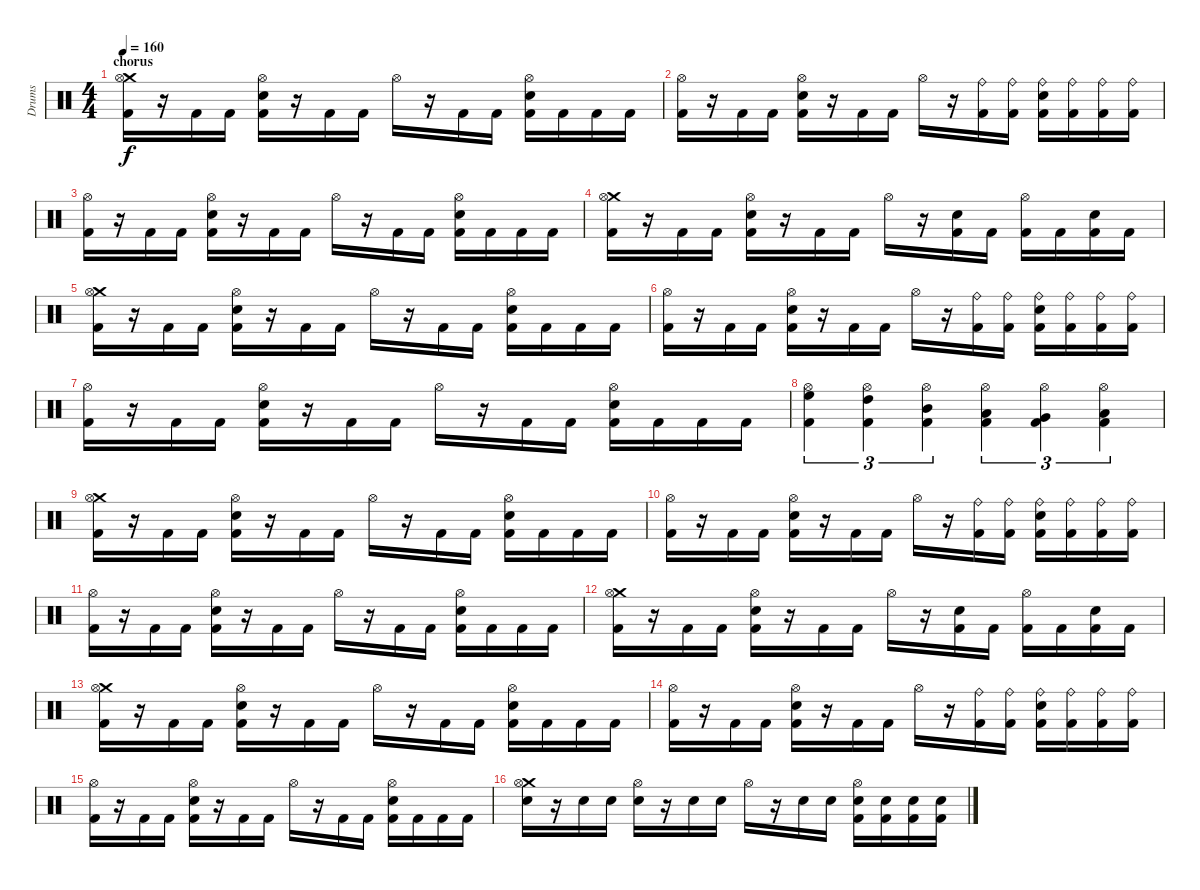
\track ("Drums" "Drums") {instrument percussion}
\staff {score}
\articulation defaults
\ts (4 4)
\section ("" "chorus")
\tempo 160
\clef neutral
\ks c
("Crash medium (hit)" "Hi-Hat (open)" "Kick (hit) 2").16{dy f} r.16 "Kick (hit) 2".16 "Kick (hit) 2".16 ("Hi-Hat (open)" "Electric Snare (hit)" "Kick (hit) 2").16 r.16 "Kick (hit) 2".16 "Kick (hit) 2".16 "Hi-Hat (open)".16 r.16 "Kick (hit) 2".16 "Kick (hit) 2".16 ("Hi-Hat (open)" "Electric Snare (hit)" "Kick (hit) 2").16 "Kick (hit) 2".16 "Kick (hit) 2".16 "Kick (hit) 2".16 |
("Hi-Hat (open)" "Kick (hit) 2").16 r.16 "Kick (hit) 2".16 "Kick (hit) 2".16 ("Hi-Hat (open)" "Electric Snare (hit)" "Kick (hit) 2").16 r.16 "Kick (hit) 2".16 "Kick (hit) 2".16 "Hi-Hat (open)".16 r.16 ("Ride (bell)" "Kick (hit) 2").16 ("Ride (bell)" "Kick (hit) 2").16 ("Ride (bell)" "Electric Snare (hit)" "Kick (hit) 2").16 ("Ride (bell)" "Kick (hit) 2").16 ("Ride (bell)" "Kick (hit) 2").16 ("Ride (bell)" "Kick (hit) 2").16 |
("Hi-Hat (open)" "Kick (hit) 2").16 r.16 "Kick (hit) 2".16 "Kick (hit) 2".16 ("Hi-Hat (open)" "Electric Snare (hit)" "Kick (hit) 2").16 r.16 "Kick (hit) 2".16 "Kick (hit) 2".16 "Hi-Hat (open)".16 r.16 "Kick (hit) 2".16 "Kick (hit) 2".16 ("Hi-Hat (open)" "Electric Snare (hit)" "Kick (hit) 2").16 "Kick (hit) 2".16 "Kick (hit) 2".16 "Kick (hit) 2".16 |
("Crash medium (hit)" "Hi-Hat (open)" "Kick (hit) 2").16 r.16 "Kick (hit) 2".16 "Kick (hit) 2".16 ("Hi-Hat (open)" "Electric Snare (hit)" "Kick (hit) 2").16 r.16 "Kick (hit) 2".16 "Kick (hit) 2".16 "Hi-Hat (open)".16 r.16 ("Electric Snare (hit)" "Kick (hit) 2").16 "Kick (hit) 2".16 ("Hi-Hat (open)" "Kick (hit) 2").16 "Kick (hit) 2".16 ("Electric Snare (hit)" "Kick (hit) 2").16 "Kick (hit) 2".16 |
("Crash medium (hit)" "Hi-Hat (open)" "Kick (hit) 2").16 r.16 "Kick (hit) 2".16 "Kick (hit) 2".16 ("Hi-Hat (open)" "Electric Snare (hit)" "Kick (hit) 2").16 r.16 "Kick (hit) 2".16 "Kick (hit) 2".16 "Hi-Hat (open)".16 r.16 "Kick (hit) 2".16 "Kick (hit) 2".16 ("Hi-Hat (open)" "Electric Snare (hit)" "Kick (hit) 2").16 "Kick (hit) 2".16 "Kick (hit) 2".16 "Kick (hit) 2".16 |
("Hi-Hat (open)" "Kick (hit) 2").16 r.16 "Kick (hit) 2".16 "Kick (hit) 2".16 ("Hi-Hat (open)" "Electric Snare (hit)" "Kick (hit) 2").16 r.16 "Kick (hit) 2".16 "Kick (hit) 2".16 "Hi-Hat (open)".16 r.16 ("Ride (bell)" "Kick (hit) 2").16 ("Ride (bell)" "Kick (hit) 2").16 ("Ride (bell)" "Electric Snare (hit)" "Kick (hit) 2").16 ("Ride (bell)" "Kick (hit) 2").16 ("Ride (bell)" "Kick (hit) 2").16 ("Ride (bell)" "Kick (hit) 2").16 |
("Hi-Hat (open)" "Kick (hit) 2").16 r.16 "Kick (hit) 2".16 "Kick (hit) 2".16 ("Hi-Hat (open)" "Electric Snare (hit)" "Kick (hit) 2").16 r.16 "Kick (hit) 2".16 "Kick (hit) 2".16 "Hi-Hat (open)".16 r.16 "Kick (hit) 2".16 "Kick (hit) 2".16 ("Hi-Hat (open)" "Electric Snare (hit)" "Kick (hit) 2").16 "Kick (hit) 2".16 "Kick (hit) 2".16 "Kick (hit) 2".16 |
("Hi-Hat (open)" "High Floor Tom (hit)" "Kick (hit) 2").4{tu (3 2)} ("Hi-Hat (open)" "High Tom (hit)" "Kick (hit) 2").4{tu (3 2)} ("Hi-Hat (open)" "Mid Tom (hit)" "Kick (hit) 2").4{tu (3 2)} ("Hi-Hat (open)" "Low Tom (hit)" "Kick (hit) 2").4{tu (3 2)} ("Hi-Hat (open)" "Very Low Tom (hit)" "Kick (hit) 2").4{tu (3 2)} ("Hi-Hat (open)" "Low Floor Tom (hit)" "Kick (hit) 2").4{tu (3 2)} |
("Crash medium (hit)" "Hi-Hat (open)" "Kick (hit) 2").16 r.16 "Kick (hit) 2".16 "Kick (hit) 2".16 ("Hi-Hat (open)" "Electric Snare (hit)" "Kick (hit) 2").16 r.16 "Kick (hit) 2".16 "Kick (hit) 2".16 "Hi-Hat (open)".16 r.16 "Kick (hit) 2".16 "Kick (hit) 2".16 ("Hi-Hat (open)" "Electric Snare (hit)" "Kick (hit) 2").16 "Kick (hit) 2".16 "Kick (hit) 2".16 "Kick (hit) 2".16 |
("Hi-Hat (open)" "Kick (hit) 2").16 r.16 "Kick (hit) 2".16 "Kick (hit) 2".16 ("Hi-Hat (open)" "Electric Snare (hit)" "Kick (hit) 2").16 r.16 "Kick (hit) 2".16 "Kick (hit) 2".16 "Hi-Hat (open)".16 r.16 ("Ride (bell)" "Kick (hit) 2").16 ("Ride (bell)" "Kick (hit) 2").16 ("Ride (bell)" "Electric Snare (hit)" "Kick (hit) 2").16 ("Ride (bell)" "Kick (hit) 2").16 ("Ride (bell)" "Kick (hit) 2").16 ("Ride (bell)" "Kick (hit) 2").16 |
("Hi-Hat (open)" "Kick (hit) 2").16 r.16 "Kick (hit) 2".16 "Kick (hit) 2".16 ("Hi-Hat (open)" "Electric Snare (hit)" "Kick (hit) 2").16 r.16 "Kick (hit) 2".16 "Kick (hit) 2".16 "Hi-Hat (open)".16 r.16 "Kick (hit) 2".16 "Kick (hit) 2".16 ("Hi-Hat (open)" "Electric Snare (hit)" "Kick (hit) 2").16 "Kick (hit) 2".16 "Kick (hit) 2".16 "Kick (hit) 2".16 |
("Crash medium (hit)" "Hi-Hat (open)" "Kick (hit) 2").16 r.16 "Kick (hit) 2".16 "Kick (hit) 2".16 ("Hi-Hat (open)" "Electric Snare (hit)" "Kick (hit) 2").16 r.16 "Kick (hit) 2".16 "Kick (hit) 2".16 "Hi-Hat (open)".16 r.16 ("Electric Snare (hit)" "Kick (hit) 2").16 "Kick (hit) 2".16 ("Hi-Hat (open)" "Kick (hit) 2").16 "Kick (hit) 2".16 ("Electric Snare (hit)" "Kick (hit) 2").16 "Kick (hit) 2".16 |
("Crash medium (hit)" "Hi-Hat (open)" "Kick (hit) 2").16 r.16 "Kick (hit) 2".16 "Kick (hit) 2".16 ("Hi-Hat (open)" "Electric Snare (hit)" "Kick (hit) 2").16 r.16 "Kick (hit) 2".16 "Kick (hit) 2".16 "Hi-Hat (open)".16 r.16 "Kick (hit) 2".16 "Kick (hit) 2".16 ("Hi-Hat (open)" "Electric Snare (hit)" "Kick (hit) 2").16 "Kick (hit) 2".16 "Kick (hit) 2".16 "Kick (hit) 2".16 |
("Hi-Hat (open)" "Kick (hit) 2").16 r.16 "Kick (hit) 2".16 "Kick (hit) 2".16 ("Hi-Hat (open)" "Electric Snare (hit)" "Kick (hit) 2").16 r.16 "Kick (hit) 2".16 "Kick (hit) 2".16 "Hi-Hat (open)".16 r.16 ("Ride (bell)" "Kick (hit) 2").16 ("Ride (bell)" "Kick (hit) 2").16 ("Ride (bell)" "Electric Snare (hit)" "Kick (hit) 2").16 ("Ride (bell)" "Kick (hit) 2").16 ("Ride (bell)" "Kick (hit) 2").16 ("Ride (bell)" "Kick (hit) 2").16 |
("Hi-Hat (open)" "Kick (hit) 2").16 r.16 "Kick (hit) 2".16 "Kick (hit) 2".16 ("Hi-Hat (open)" "Electric Snare (hit)" "Kick (hit) 2").16 r.16 "Kick (hit) 2".16 "Kick (hit) 2".16 "Hi-Hat (open)".16 r.16 "Kick (hit) 2".16 "Kick (hit) 2".16 ("Hi-Hat (open)" "Electric Snare (hit)" "Kick (hit) 2").16 "Kick (hit) 2".16 "Kick (hit) 2".16 "Kick (hit) 2".16 |
("Crash medium (hit)" "Hi-Hat (open)" "Electric Snare (hit)").16 r.16 "Electric Snare (hit)".16 "Electric Snare (hit)".16 ("Hi-Hat (open)" "Electric Snare (hit)").16 r.16 "Electric Snare (hit)".16 "Electric Snare (hit)".16 "Hi-Hat (open)".16 r.16 "Electric Snare (hit)".16 "Electric Snare (hit)".16 ("Hi-Hat (open)" "Electric Snare (hit)" "Kick (hit) 2").16 ("Electric Snare (hit)" "Kick (hit) 2").16 ("Electric Snare (hit)" "Kick (hit) 2").16 ("Electric Snare (hit)" "Kick (hit) 2").16
